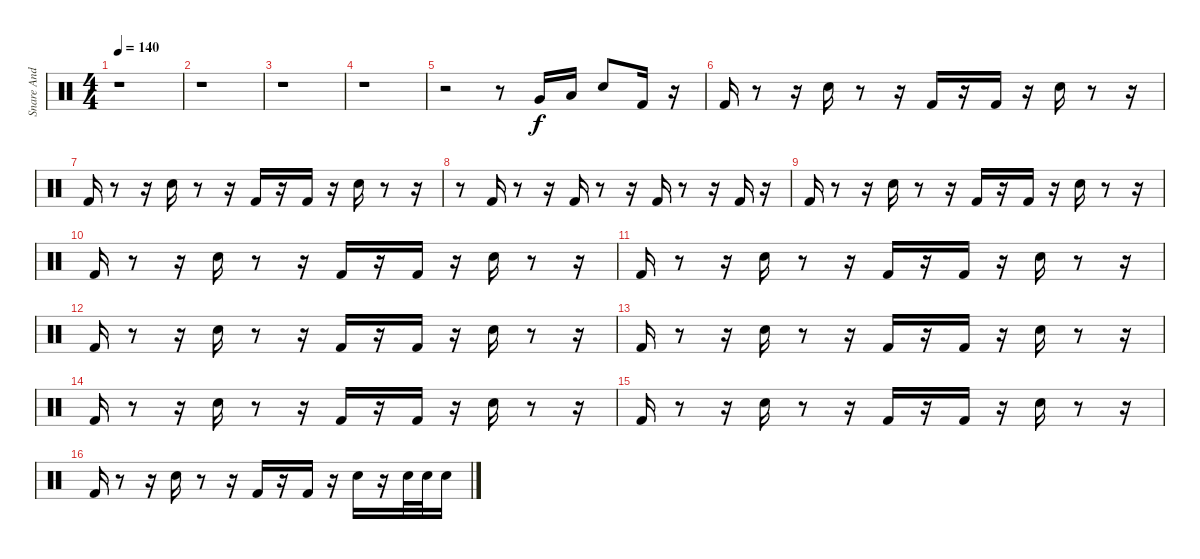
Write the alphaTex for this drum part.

\track ("Snare And Bass Drums" "Snare And ") {instrument percussion}
\staff {score}
\articulation defaults
\ts (4 4)
\tempo 140
\clef neutral
\ks c
r.1{dy f} |
r.1 |
r.1 |
r.1 |
r.2 r.8 "Very Low Tom (hit)".16 "Low Floor Tom (hit)".16 "Snare (hit) 2".8 "Kick (hit) 2".16 r.16 |
"Kick (hit) 2".16 r.8 r.16 "Snare (hit) 2".16 r.8 r.16 "Kick (hit) 2".16 r.16 "Kick (hit) 2".16 r.16 "Snare (hit) 2".16 r.8 r.16 |
"Kick (hit) 2".16 r.8 r.16 "Snare (hit) 2".16 r.8 r.16 "Kick (hit) 2".16 r.16 "Kick (hit) 2".16 r.16 "Snare (hit) 2".16 r.8 r.16 |
r.8 "Kick (hit) 2".16 r.8 r.16 "Kick (hit) 2".16 r.8 r.16 "Kick (hit) 2".16 r.8 r.16 "Kick (hit) 2".16 r.16 |
"Kick (hit) 2".16 r.8 r.16 "Snare (hit) 2".16 r.8 r.16 "Kick (hit) 2".16 r.16 "Kick (hit) 2".16 r.16 "Snare (hit) 2".16 r.8 r.16 |
"Kick (hit) 2".16 r.8 r.16 "Snare (hit) 2".16 r.8 r.16 "Kick (hit) 2".16 r.16 "Kick (hit) 2".16 r.16 "Snare (hit) 2".16 r.8 r.16 |
"Kick (hit) 2".16 r.8 r.16 "Snare (hit) 2".16 r.8 r.16 "Kick (hit) 2".16 r.16 "Kick (hit) 2".16 r.16 "Snare (hit) 2".16 r.8 r.16 |
"Kick (hit) 2".16 r.8 r.16 "Snare (hit) 2".16 r.8 r.16 "Kick (hit) 2".16 r.16 "Kick (hit) 2".16 r.16 "Snare (hit) 2".16 r.8 r.16 |
"Kick (hit) 2".16 r.8 r.16 "Snare (hit) 2".16 r.8 r.16 "Kick (hit) 2".16 r.16 "Kick (hit) 2".16 r.16 "Snare (hit) 2".16 r.8 r.16 |
"Kick (hit) 2".16 r.8 r.16 "Snare (hit) 2".16 r.8 r.16 "Kick (hit) 2".16 r.16 "Kick (hit) 2".16 r.16 "Snare (hit) 2".16 r.8 r.16 |
"Kick (hit) 2".16 r.8 r.16 "Snare (hit) 2".16 r.8 r.16 "Kick (hit) 2".16 r.16 "Kick (hit) 2".16 r.16 "Snare (hit) 2".16 r.8 r.16 |
"Kick (hit) 2".16 r.8 r.16 "Snare (hit) 2".16 r.8 r.16 "Kick (hit) 2".16 r.16 "Kick (hit) 2".16 r.16 "Snare (hit) 2".16 r.16 "Snare (hit) 2".32 "Snare (hit) 2".32 "Snare (hit) 2".16
